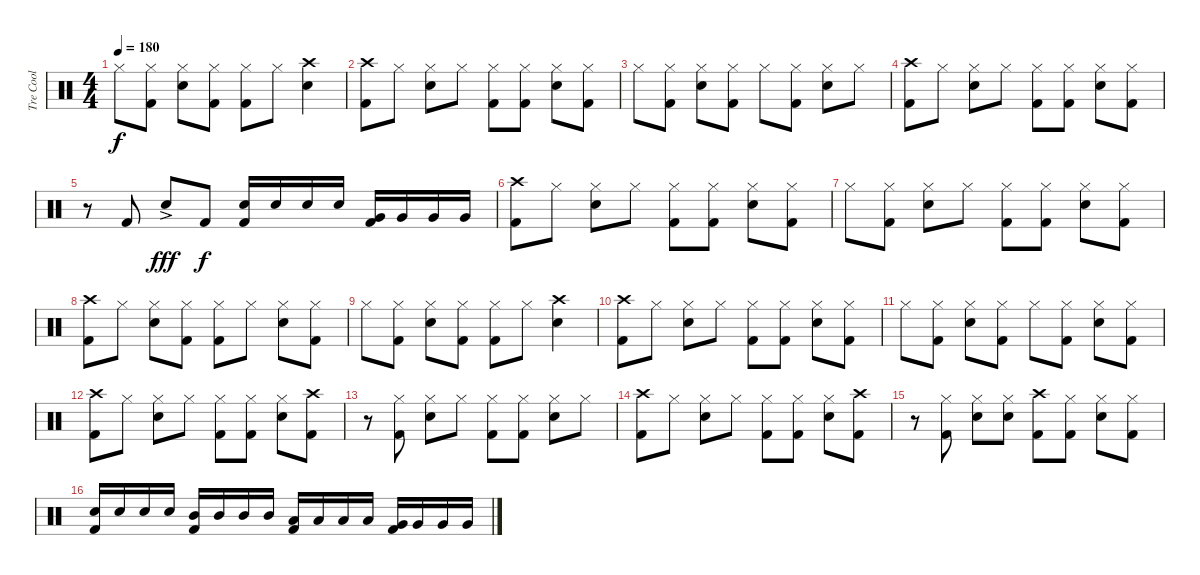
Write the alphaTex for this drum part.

\track ("Tre Cool" "Tre Cool") {instrument percussion}
\staff {score}
\articulation defaults
\ts (4 4)
\tempo 180
\clef neutral
\ks c "Hi-Hat (closed)".8{dy f}
("Hi-Hat (closed)" "Kick (hit) 2").8 ("Hi-Hat (closed)" "Electric Snare (hit)").8 ("Hi-Hat (closed)" "Kick (hit) 2").8 ("Hi-Hat (closed)" "Kick (hit) 2").8 "Hi-Hat (closed)".8 ("Crash high (hit)" "Electric Snare (hit)").4 |
("Crash high (hit)" "Kick (hit) 2").8 "Hi-Hat (closed)".8 ("Hi-Hat (closed)" "Electric Snare (hit)").8 "Hi-Hat (closed)".8 ("Hi-Hat (closed)" "Kick (hit) 2").8 ("Hi-Hat (closed)" "Kick (hit) 2").8 ("Hi-Hat (closed)" "Electric Snare (hit)").8 ("Hi-Hat (closed)" "Kick (hit) 2").8 |
"Hi-Hat (closed)".8 ("Hi-Hat (closed)" "Kick (hit) 2").8 ("Hi-Hat (closed)" "Electric Snare (hit)").8 ("Hi-Hat (closed)" "Kick (hit) 2").8 "Hi-Hat (closed)".8 ("Hi-Hat (closed)" "Kick (hit) 2").8 ("Hi-Hat (closed)" "Electric Snare (hit)").8 "Hi-Hat (closed)".8 |
("Crash high (hit)" "Kick (hit) 2").8 "Hi-Hat (closed)".8 ("Hi-Hat (closed)" "Electric Snare (hit)").8 "Hi-Hat (closed)".8 ("Hi-Hat (closed)" "Kick (hit) 2").8 ("Hi-Hat (closed)" "Kick (hit) 2").8 ("Hi-Hat (closed)" "Electric Snare (hit)").8 ("Hi-Hat (closed)" "Kick (hit) 2").8 |
r.8 "Kick (hit) 2".8 "Electric Snare (hit)"{ac}.8{dy fff} "Kick (hit) 2".8{dy f} ("Electric Snare (hit)" "Kick (hit) 2").16 "Electric Snare (hit)".16 "Electric Snare (hit)".16 "Electric Snare (hit)".16 ("Very Low Tom (hit)" "Kick (hit) 2").16 "Very Low Tom (hit)".16 "Very Low Tom (hit)".16 "Very Low Tom (hit)".16 |
("Crash high (hit)" "Kick (hit) 2").8 "Hi-Hat (closed)".8 ("Hi-Hat (closed)" "Electric Snare (hit)").8 "Hi-Hat (closed)".8 ("Hi-Hat (closed)" "Kick (hit) 2").8 ("Hi-Hat (closed)" "Kick (hit) 2").8 ("Hi-Hat (closed)" "Electric Snare (hit)").8 ("Hi-Hat (closed)" "Kick (hit) 2").8 |
"Hi-Hat (closed)".8 ("Hi-Hat (closed)" "Kick (hit) 2").8 ("Hi-Hat (closed)" "Electric Snare (hit)").8 "Hi-Hat (closed)".8 ("Hi-Hat (closed)" "Kick (hit) 2").8 ("Hi-Hat (closed)" "Kick (hit) 2").8 ("Hi-Hat (closed)" "Electric Snare (hit)").8 ("Hi-Hat (closed)" "Kick (hit) 2").8 |
("Crash high (hit)" "Kick (hit) 2").8 "Hi-Hat (closed)".8 ("Hi-Hat (closed)" "Electric Snare (hit)").8 ("Hi-Hat (closed)" "Kick (hit) 2").8 ("Hi-Hat (closed)" "Kick (hit) 2").8 "Hi-Hat (closed)".8 ("Hi-Hat (closed)" "Electric Snare (hit)").8 ("Hi-Hat (closed)" "Kick (hit) 2").8 |
"Hi-Hat (closed)".8 ("Hi-Hat (closed)" "Kick (hit) 2").8 ("Hi-Hat (closed)" "Electric Snare (hit)").8 ("Hi-Hat (closed)" "Kick (hit) 2").8 ("Hi-Hat (closed)" "Kick (hit) 2").8 "Hi-Hat (closed)".8 ("Crash high (hit)" "Electric Snare (hit)").4 |
("Crash high (hit)" "Kick (hit) 2").8 "Hi-Hat (closed)".8 ("Hi-Hat (closed)" "Electric Snare (hit)").8 "Hi-Hat (closed)".8 ("Hi-Hat (closed)" "Kick (hit) 2").8 ("Hi-Hat (closed)" "Kick (hit) 2").8 ("Hi-Hat (closed)" "Electric Snare (hit)").8 ("Hi-Hat (closed)" "Kick (hit) 2").8 |
"Hi-Hat (closed)".8 ("Hi-Hat (closed)" "Kick (hit) 2").8 ("Hi-Hat (closed)" "Electric Snare (hit)").8 ("Hi-Hat (closed)" "Kick (hit) 2").8 "Hi-Hat (closed)".8 ("Hi-Hat (closed)" "Kick (hit) 2").8 ("Hi-Hat (closed)" "Electric Snare (hit)").8 ("Hi-Hat (closed)" "Kick (hit) 2").8 |
("Crash high (hit)" "Kick (hit) 2").8 "Hi-Hat (closed)".8 ("Hi-Hat (closed)" "Electric Snare (hit)").8 "Hi-Hat (closed)".8 ("Hi-Hat (closed)" "Kick (hit) 2").8 ("Hi-Hat (closed)" "Kick (hit) 2").8 ("Hi-Hat (closed)" "Electric Snare (hit)").8 ("Crash high (hit)" "Kick (hit) 2").8 |
r.8 ("Hi-Hat (closed)" "Kick (hit) 2").8 ("Hi-Hat (closed)" "Electric Snare (hit)").8 "Hi-Hat (closed)".8 ("Hi-Hat (closed)" "Kick (hit) 2").8 ("Hi-Hat (closed)" "Kick (hit) 2").8 ("Hi-Hat (closed)" "Electric Snare (hit)").8 "Hi-Hat (closed)".8 |
("Crash high (hit)" "Kick (hit) 2").8 "Hi-Hat (closed)".8 ("Hi-Hat (closed)" "Electric Snare (hit)").8 "Hi-Hat (closed)".8 ("Hi-Hat (closed)" "Kick (hit) 2").8 ("Hi-Hat (closed)" "Kick (hit) 2").8 ("Hi-Hat (closed)" "Electric Snare (hit)").8 ("Crash high (hit)" "Kick (hit) 2").8 |
r.8 ("Hi-Hat (closed)" "Kick (hit) 2").8 ("Hi-Hat (closed)" "Electric Snare (hit)").8 ("Hi-Hat (closed)" "Electric Snare (hit)").8 ("Crash high (hit)" "Kick (hit) 2").8 ("Hi-Hat (closed)" "Kick (hit) 2").8 ("Hi-Hat (closed)" "Electric Snare (hit)").8 ("Hi-Hat (closed)" "Kick (hit) 2").8 |
("Electric Snare (hit)" "Kick (hit) 2").16 "Electric Snare (hit)".16 "Electric Snare (hit)".16 "Electric Snare (hit)".16 ("Mid Tom (hit)" "Kick (hit) 2").16 "Mid Tom (hit)".16 "Mid Tom (hit)".16 "Mid Tom (hit)".16 ("Low Tom (hit)" "Kick (hit) 2").16 "Low Tom (hit)".16 "Low Tom (hit)".16 "Low Tom (hit)".16 ("Very Low Tom (hit)" "Kick (hit) 2").16 "Very Low Tom (hit)".16 "Very Low Tom (hit)".16 "Very Low Tom (hit)".16
